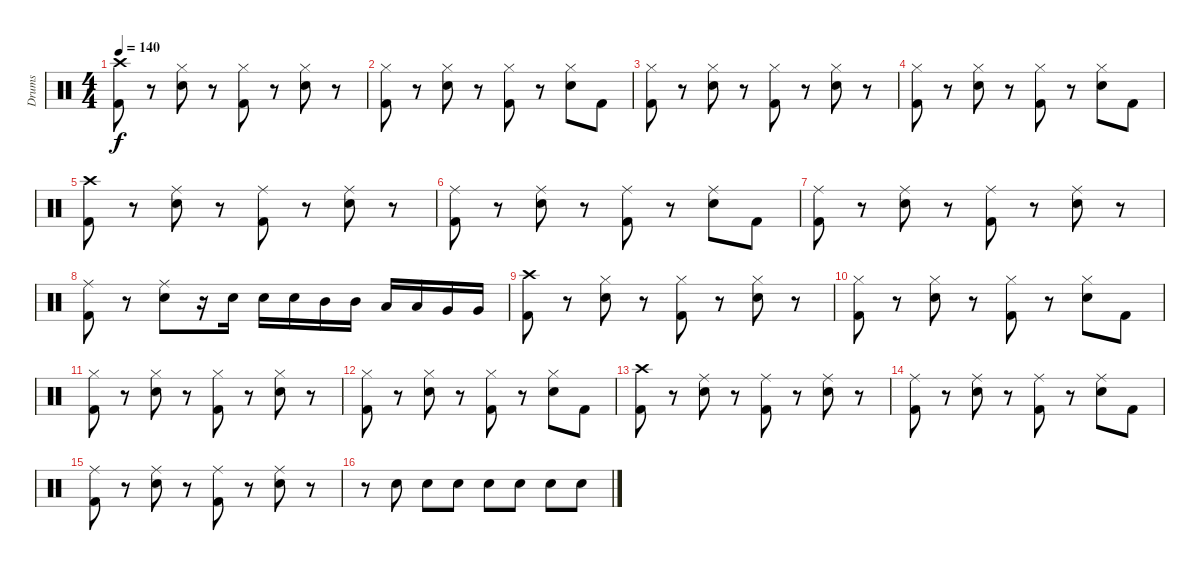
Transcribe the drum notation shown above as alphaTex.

\track ("Drums" "Drums") {instrument percussion}
\staff {score}
\articulation defaults
\ts (4 4)
\tempo 140
\clef neutral
\ks c
("Crash high (hit)" "Kick (hit) 2").8{dy f} r.8 ("Hi-Hat (closed)" "Electric Snare (hit)").8 r.8 ("Hi-Hat (closed)" "Kick (hit) 2").8 r.8 ("Hi-Hat (closed)" "Electric Snare (hit)").8 r.8 |
("Hi-Hat (closed)" "Kick (hit) 2").8 r.8 ("Hi-Hat (closed)" "Electric Snare (hit)").8 r.8 ("Hi-Hat (closed)" "Kick (hit) 2").8 r.8 ("Hi-Hat (closed)" "Electric Snare (hit)").8 "Kick (hit) 2".8 |
("Hi-Hat (closed)" "Kick (hit) 2").8 r.8 ("Hi-Hat (closed)" "Electric Snare (hit)").8 r.8 ("Hi-Hat (closed)" "Kick (hit) 2").8 r.8 ("Hi-Hat (closed)" "Electric Snare (hit)").8 r.8 |
("Hi-Hat (closed)" "Kick (hit) 2").8 r.8 ("Hi-Hat (closed)" "Electric Snare (hit)").8 r.8 ("Hi-Hat (closed)" "Kick (hit) 2").8 r.8 ("Hi-Hat (closed)" "Electric Snare (hit)").8 "Kick (hit) 2".8 |
("Crash high (hit)" "Kick (hit) 2").8 r.8 ("Ride (middle)" "Electric Snare (hit)").8 r.8 ("Ride (middle)" "Kick (hit) 2").8 r.8 ("Ride (middle)" "Electric Snare (hit)").8 r.8 |
("Ride (middle)" "Kick (hit) 2").8 r.8 ("Ride (middle)" "Electric Snare (hit)").8 r.8 ("Ride (middle)" "Kick (hit) 2").8 r.8 ("Ride (middle)" "Electric Snare (hit)").8 "Kick (hit) 2".8 |
("Ride (middle)" "Kick (hit) 2").8 r.8 ("Ride (middle)" "Electric Snare (hit)").8 r.8 ("Ride (middle)" "Kick (hit) 2").8 r.8 ("Ride (middle)" "Electric Snare (hit)").8 r.8 |
("Ride (middle)" "Kick (hit) 2").8 r.8 ("Ride (middle)" "Electric Snare (hit)").8 r.16 "Electric Snare (hit)".16 "Electric Snare (hit)".16 "Electric Snare (hit)".16 "Mid Tom (hit)".16 "Mid Tom (hit)".16 "Low Tom (hit)".16 "Low Tom (hit)".16 "Very Low Tom (hit)".16 "Very Low Tom (hit)".16 |
("Crash high (hit)" "Kick (hit) 2").8 r.8 ("Hi-Hat (closed)" "Electric Snare (hit)").8 r.8 ("Hi-Hat (closed)" "Kick (hit) 2").8 r.8 ("Hi-Hat (closed)" "Electric Snare (hit)").8 r.8 |
("Hi-Hat (closed)" "Kick (hit) 2").8 r.8 ("Hi-Hat (closed)" "Electric Snare (hit)").8 r.8 ("Hi-Hat (closed)" "Kick (hit) 2").8 r.8 ("Hi-Hat (closed)" "Electric Snare (hit)").8 "Kick (hit) 2".8 |
("Hi-Hat (closed)" "Kick (hit) 2").8 r.8 ("Hi-Hat (closed)" "Electric Snare (hit)").8 r.8 ("Hi-Hat (closed)" "Kick (hit) 2").8 r.8 ("Hi-Hat (closed)" "Electric Snare (hit)").8 r.8 |
("Hi-Hat (closed)" "Kick (hit) 2").8 r.8 ("Hi-Hat (closed)" "Electric Snare (hit)").8 r.8 ("Hi-Hat (closed)" "Kick (hit) 2").8 r.8 ("Hi-Hat (closed)" "Electric Snare (hit)").8 "Kick (hit) 2".8 |
("Crash high (hit)" "Kick (hit) 2").8 r.8 ("Ride (middle)" "Electric Snare (hit)").8 r.8 ("Ride (middle)" "Kick (hit) 2").8 r.8 ("Ride (middle)" "Electric Snare (hit)").8 r.8 |
("Ride (middle)" "Kick (hit) 2").8 r.8 ("Ride (middle)" "Electric Snare (hit)").8 r.8 ("Ride (middle)" "Kick (hit) 2").8 r.8 ("Ride (middle)" "Electric Snare (hit)").8 "Kick (hit) 2".8 |
("Ride (middle)" "Kick (hit) 2").8 r.8 ("Ride (middle)" "Electric Snare (hit)").8 r.8 ("Ride (middle)" "Kick (hit) 2").8 r.8 ("Ride (middle)" "Electric Snare (hit)").8 r.8 |
r.8 "Electric Snare (hit)".8 "Electric Snare (hit)".8 "Electric Snare (hit)".8 "Electric Snare (hit)".8 "Electric Snare (hit)".8 "Electric Snare (hit)".8 "Electric Snare (hit)".8
